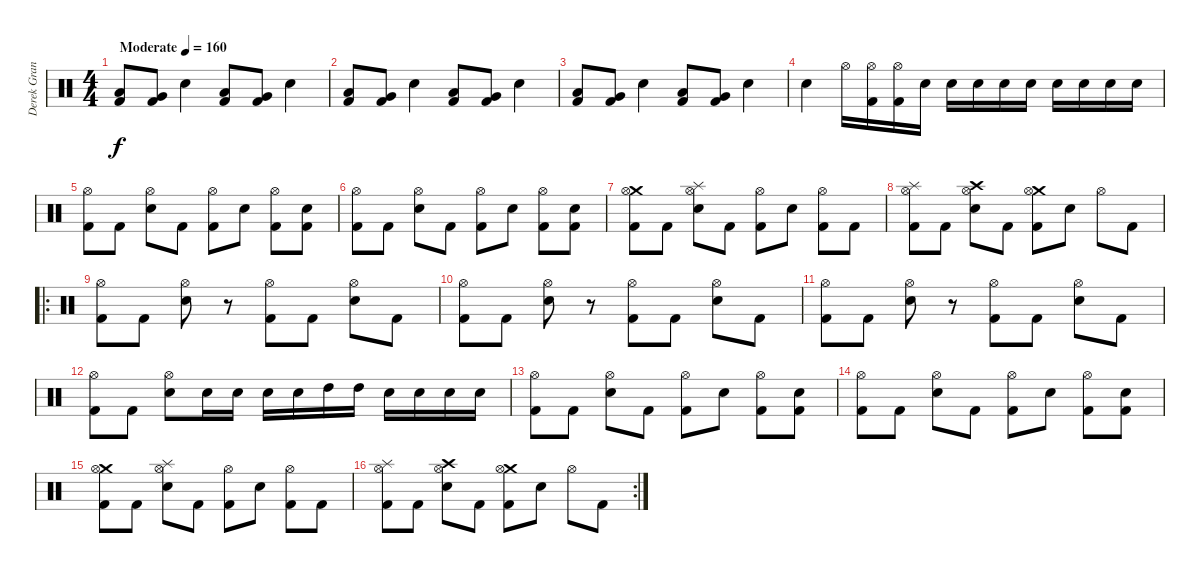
\track ("Derek Grant" "Derek Gran") {instrument percussion}
\staff {score}
\articulation defaults
\ts (4 4)
\tempo (160 "Moderate")
\clef neutral
\ks c
("Low Floor Tom (hit)" "Kick (hit) 2").8{dy f} ("Very Low Tom (hit)" "Kick (hit) 2").8 "Snare (hit) 2".4 ("Low Floor Tom (hit)" "Kick (hit) 2").8 ("Very Low Tom (hit)" "Kick (hit) 2").8 "Snare (hit) 2".4 |
("Low Floor Tom (hit)" "Kick (hit) 2").8 ("Very Low Tom (hit)" "Kick (hit) 2").8 "Snare (hit) 2".4 ("Low Floor Tom (hit)" "Kick (hit) 2").8 ("Very Low Tom (hit)" "Kick (hit) 2").8 "Snare (hit) 2".4 |
("Low Floor Tom (hit)" "Kick (hit) 2").8 ("Very Low Tom (hit)" "Kick (hit) 2").8 "Snare (hit) 2".4 ("Low Floor Tom (hit)" "Kick (hit) 2").8 ("Very Low Tom (hit)" "Kick (hit) 2").8 "Snare (hit) 2".4 |
"Snare (hit) 2".4 "Hi-Hat (open)".16 ("Hi-Hat (open)" "Kick (hit) 2").16 ("Hi-Hat (open)" "Kick (hit) 2").16 "Snare (hit) 2".16 "Snare (hit) 2".16 "Snare (hit) 2".16 "Snare (hit) 2".16 "Snare (hit) 2".16 "Snare (hit) 2".16 "Snare (hit) 2".16 "Snare (hit) 2".16 "Snare (hit) 2".16 |
("Hi-Hat (open)" "Kick (hit) 2").8 "Kick (hit) 2".8 ("Hi-Hat (open)" "Snare (hit) 2").8 "Kick (hit) 2".8 ("Hi-Hat (open)" "Kick (hit) 2").8 "Snare (hit) 2".8 ("Hi-Hat (open)" "Kick (hit) 2").8 ("Snare (hit) 2" "Kick (hit) 2").8 |
("Hi-Hat (open)" "Kick (hit) 2").8 "Kick (hit) 2".8 ("Hi-Hat (open)" "Snare (hit) 2").8 "Kick (hit) 2".8 ("Hi-Hat (open)" "Kick (hit) 2").8 "Snare (hit) 2".8 ("Hi-Hat (open)" "Kick (hit) 2").8 ("Snare (hit) 2" "Kick (hit) 2").8 |
("Crash medium (hit)" "Hi-Hat (open)" "Kick (hit) 2").8 "Kick (hit) 2".8 ("Splash (hit)" "Hi-Hat (open)" "Snare (hit) 2").8 "Kick (hit) 2".8 ("Hi-Hat (open)" "Kick (hit) 2").8 "Snare (hit) 2".8 ("Hi-Hat (open)" "Kick (hit) 2").8 "Kick (hit) 2".8 |
("Splash (hit)" "Hi-Hat (open)" "Kick (hit) 2").8 "Kick (hit) 2".8 ("Crash high (hit)" "Hi-Hat (open)" "Snare (hit) 2").8 "Kick (hit) 2".8 ("Crash medium (hit)" "Hi-Hat (open)" "Kick (hit) 2").8 "Snare (hit) 2".8 "Hi-Hat (open)".8 "Kick (hit) 2".8 |
\ro
("Hi-Hat (open)" "Kick (hit) 2").8 "Kick (hit) 2".8 ("Hi-Hat (open)" "Snare (hit) 2").8 r.8 ("Hi-Hat (open)" "Kick (hit) 2").8 "Kick (hit) 2".8 ("Hi-Hat (open)" "Snare (hit) 2").8 "Kick (hit) 2".8 |
("Hi-Hat (open)" "Kick (hit) 2").8 "Kick (hit) 2".8 ("Hi-Hat (open)" "Snare (hit) 2").8 r.8 ("Hi-Hat (open)" "Kick (hit) 2").8 "Kick (hit) 2".8 ("Hi-Hat (open)" "Snare (hit) 2").8 "Kick (hit) 2".8 |
("Hi-Hat (open)" "Kick (hit) 2").8 "Kick (hit) 2".8 ("Hi-Hat (open)" "Snare (hit) 2").8 r.8 ("Hi-Hat (open)" "Kick (hit) 2").8 "Kick (hit) 2".8 ("Hi-Hat (open)" "Snare (hit) 2").8 "Kick (hit) 2".8 |
("Hi-Hat (open)" "Kick (hit) 2").8 "Kick (hit) 2".8 ("Hi-Hat (open)" "Snare (hit) 2").8 "Snare (hit) 2".16 "Snare (hit) 2".16 "Snare (hit) 2".16 "Snare (hit) 2".16 "High Tom (hit)".16 "High Tom (hit)".16 "Snare (hit) 2".16 "Snare (hit) 2".16 "Snare (hit) 2".16 "Snare (hit) 2".16 |
("Hi-Hat (open)" "Kick (hit) 2").8 "Kick (hit) 2".8 ("Hi-Hat (open)" "Snare (hit) 2").8 "Kick (hit) 2".8 ("Hi-Hat (open)" "Kick (hit) 2").8 "Snare (hit) 2".8 ("Hi-Hat (open)" "Kick (hit) 2").8 ("Snare (hit) 2" "Kick (hit) 2").8 |
("Hi-Hat (open)" "Kick (hit) 2").8 "Kick (hit) 2".8 ("Hi-Hat (open)" "Snare (hit) 2").8 "Kick (hit) 2".8 ("Hi-Hat (open)" "Kick (hit) 2").8 "Snare (hit) 2".8 ("Hi-Hat (open)" "Kick (hit) 2").8 ("Snare (hit) 2" "Kick (hit) 2").8 |
("Crash medium (hit)" "Hi-Hat (open)" "Kick (hit) 2").8 "Kick (hit) 2".8 ("Splash (hit)" "Hi-Hat (open)" "Snare (hit) 2").8 "Kick (hit) 2".8 ("Hi-Hat (open)" "Kick (hit) 2").8 "Snare (hit) 2".8 ("Hi-Hat (open)" "Kick (hit) 2").8 "Kick (hit) 2".8 |
\rc 2
("Splash (hit)" "Hi-Hat (open)" "Kick (hit) 2").8 "Kick (hit) 2".8 ("Crash high (hit)" "Hi-Hat (open)" "Snare (hit) 2").8 "Kick (hit) 2".8 ("Crash medium (hit)" "Hi-Hat (open)" "Kick (hit) 2").8 "Snare (hit) 2".8 "Hi-Hat (open)".8 "Kick (hit) 2".8
